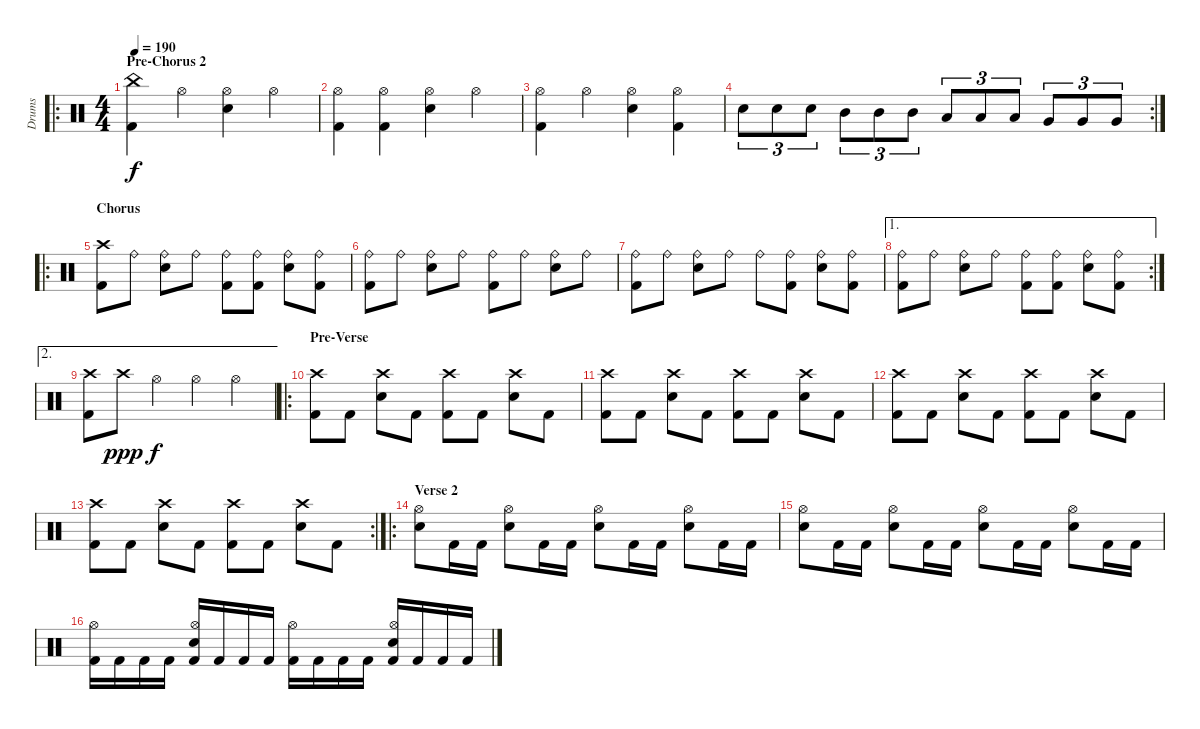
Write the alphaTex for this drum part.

\track ("Drums" "Drums") {instrument percussion}
\staff {score}
\articulation defaults
\ro
\ts (4 4)
\section ("" "Pre-Chorus 2")
\tempo 190
\clef neutral
\ks c
("China (hit)" "Kick (hit) 2").4{dy f} "Hi-Hat (open)".4 ("Hi-Hat (open)" "Electric Snare (hit)").4 "Hi-Hat (open)".4 |
("Hi-Hat (open)" "Kick (hit) 2").4 ("Hi-Hat (open)" "Kick (hit) 2").4 ("Hi-Hat (open)" "Electric Snare (hit)").4 "Hi-Hat (open)".4 |
("Hi-Hat (open)" "Kick (hit) 2").4 "Hi-Hat (open)".4 ("Hi-Hat (open)" "Electric Snare (hit)").4 ("Hi-Hat (open)" "Kick (hit) 2").4 |
\rc 2 "Electric Snare (hit)".8{tu (3 2)} "Electric Snare (hit)".8{tu (3 2)} "Electric Snare (hit)".8{tu (3 2)} "Mid Tom (hit)".8{tu (3 2)} "Mid Tom (hit)".8{tu (3 2)} "Mid Tom (hit)".8{tu (3 2)} "Low Tom (hit)".8{tu (3 2)} "Low Tom (hit)".8{tu (3 2)} "Low Tom (hit)".8{tu (3 2)} "Very Low Tom (hit)".8{tu (3 2)} "Very Low Tom (hit)".8{tu (3 2)} "Very Low Tom (hit)".8{tu (3 2)}
|
\ro
\section ("" "Chorus")
("Crash high (hit)" "Kick (hit) 2").8 "Ride (bell)".8 ("Ride (bell)" "Electric Snare (hit)").8 "Ride (bell)".8 ("Ride (bell)" "Kick (hit) 2").8 ("Ride (bell)" "Kick (hit) 2").8 ("Ride (bell)" "Electric Snare (hit)").8 ("Ride (bell)" "Kick (hit) 2").8 |
("Ride (bell)" "Kick (hit) 2").8 "Ride (bell)".8 ("Ride (bell)" "Electric Snare (hit)").8 "Ride (bell)".8 ("Ride (bell)" "Kick (hit) 2").8 "Ride (bell)".8 ("Ride (bell)" "Electric Snare (hit)").8 "Ride (bell)".8 |
("Ride (bell)" "Kick (hit) 2").8 "Ride (bell)".8 ("Ride (bell)" "Electric Snare (hit)").8 "Ride (bell)".8 "Ride (bell)".8 ("Ride (bell)" "Kick (hit) 2").8 ("Ride (bell)" "Electric Snare (hit)").8 ("Ride (bell)" "Kick (hit) 2").8 |
\ae 1
\rc 2
("Ride (bell)" "Kick (hit) 2").8 "Ride (bell)".8 ("Ride (bell)" "Electric Snare (hit)").8 "Ride (bell)".8 ("Ride (bell)" "Kick (hit) 2").8 ("Ride (bell)" "Kick (hit) 2").8 ("Ride (bell)" "Electric Snare (hit)").8 ("Ride (bell)" "Kick (hit) 2").8 |
\ae 2
("Crash high (hit)" "Kick (hit) 2").8 "Crash high (hit)".8{dy ppp} "Hi-Hat (open)".4{dy f} "Hi-Hat (open)".4 "Hi-Hat (open)".4 |
\ro
\section ("" "Pre-Verse")
("Crash high (hit)" "Kick (hit) 2").8 "Kick (hit) 2".8 ("Crash high (hit)" "Electric Snare (hit)").8 "Kick (hit) 2".8 ("Crash high (hit)" "Kick (hit) 2").8 "Kick (hit) 2".8 ("Crash high (hit)" "Electric Snare (hit)").8 "Kick (hit) 2".8 |
("Crash high (hit)" "Kick (hit) 2").8 "Kick (hit) 2".8 ("Crash high (hit)" "Electric Snare (hit)").8 "Kick (hit) 2".8 ("Crash high (hit)" "Kick (hit) 2").8 "Kick (hit) 2".8 ("Crash high (hit)" "Electric Snare (hit)").8 "Kick (hit) 2".8 |
("Crash high (hit)" "Kick (hit) 2").8 "Kick (hit) 2".8 ("Crash high (hit)" "Electric Snare (hit)").8 "Kick (hit) 2".8 ("Crash high (hit)" "Kick (hit) 2").8 "Kick (hit) 2".8 ("Crash high (hit)" "Electric Snare (hit)").8 "Kick (hit) 2".8 |
\rc 2
("Crash high (hit)" "Kick (hit) 2").8 "Kick (hit) 2".8 ("Crash high (hit)" "Electric Snare (hit)").8 "Kick (hit) 2".8 ("Crash high (hit)" "Kick (hit) 2").8 "Kick (hit) 2".8 ("Crash high (hit)" "Electric Snare (hit)").8 "Kick (hit) 2".8 |
\ro
\section ("" "Verse 2")
("Hi-Hat (open)" "Electric Snare (hit)").8 "Kick (hit) 2".16 "Kick (hit) 2".16 ("Hi-Hat (open)" "Electric Snare (hit)").8 "Kick (hit) 2".16 "Kick (hit) 2".16 ("Hi-Hat (open)" "Electric Snare (hit)").8 "Kick (hit) 2".16 "Kick (hit) 2".16 ("Hi-Hat (open)" "Electric Snare (hit)").8 "Kick (hit) 2".16 "Kick (hit) 2".16 |
("Hi-Hat (open)" "Electric Snare (hit)").8 "Kick (hit) 2".16 "Kick (hit) 2".16 ("Hi-Hat (open)" "Electric Snare (hit)").8 "Kick (hit) 2".16 "Kick (hit) 2".16 ("Hi-Hat (open)" "Electric Snare (hit)").8 "Kick (hit) 2".16 "Kick (hit) 2".16 ("Hi-Hat (open)" "Electric Snare (hit)").8 "Kick (hit) 2".16 "Kick (hit) 2".16 |
("Kick (hit) 2" "Hi-Hat (open)").16 "Kick (hit) 2".16 "Kick (hit) 2".16 "Kick (hit) 2".16 ("Kick (hit) 2" "Hi-Hat (open)" "Electric Snare (hit)").16 "Kick (hit) 2".16 "Kick (hit) 2".16 "Kick (hit) 2".16 ("Kick (hit) 2" "Hi-Hat (open)").16 "Kick (hit) 2".16 "Kick (hit) 2".16 "Kick (hit) 2".16 ("Kick (hit) 2" "Hi-Hat (open)" "Electric Snare (hit)").16 "Kick (hit) 2".16 "Kick (hit) 2".16 "Kick (hit) 2".16
